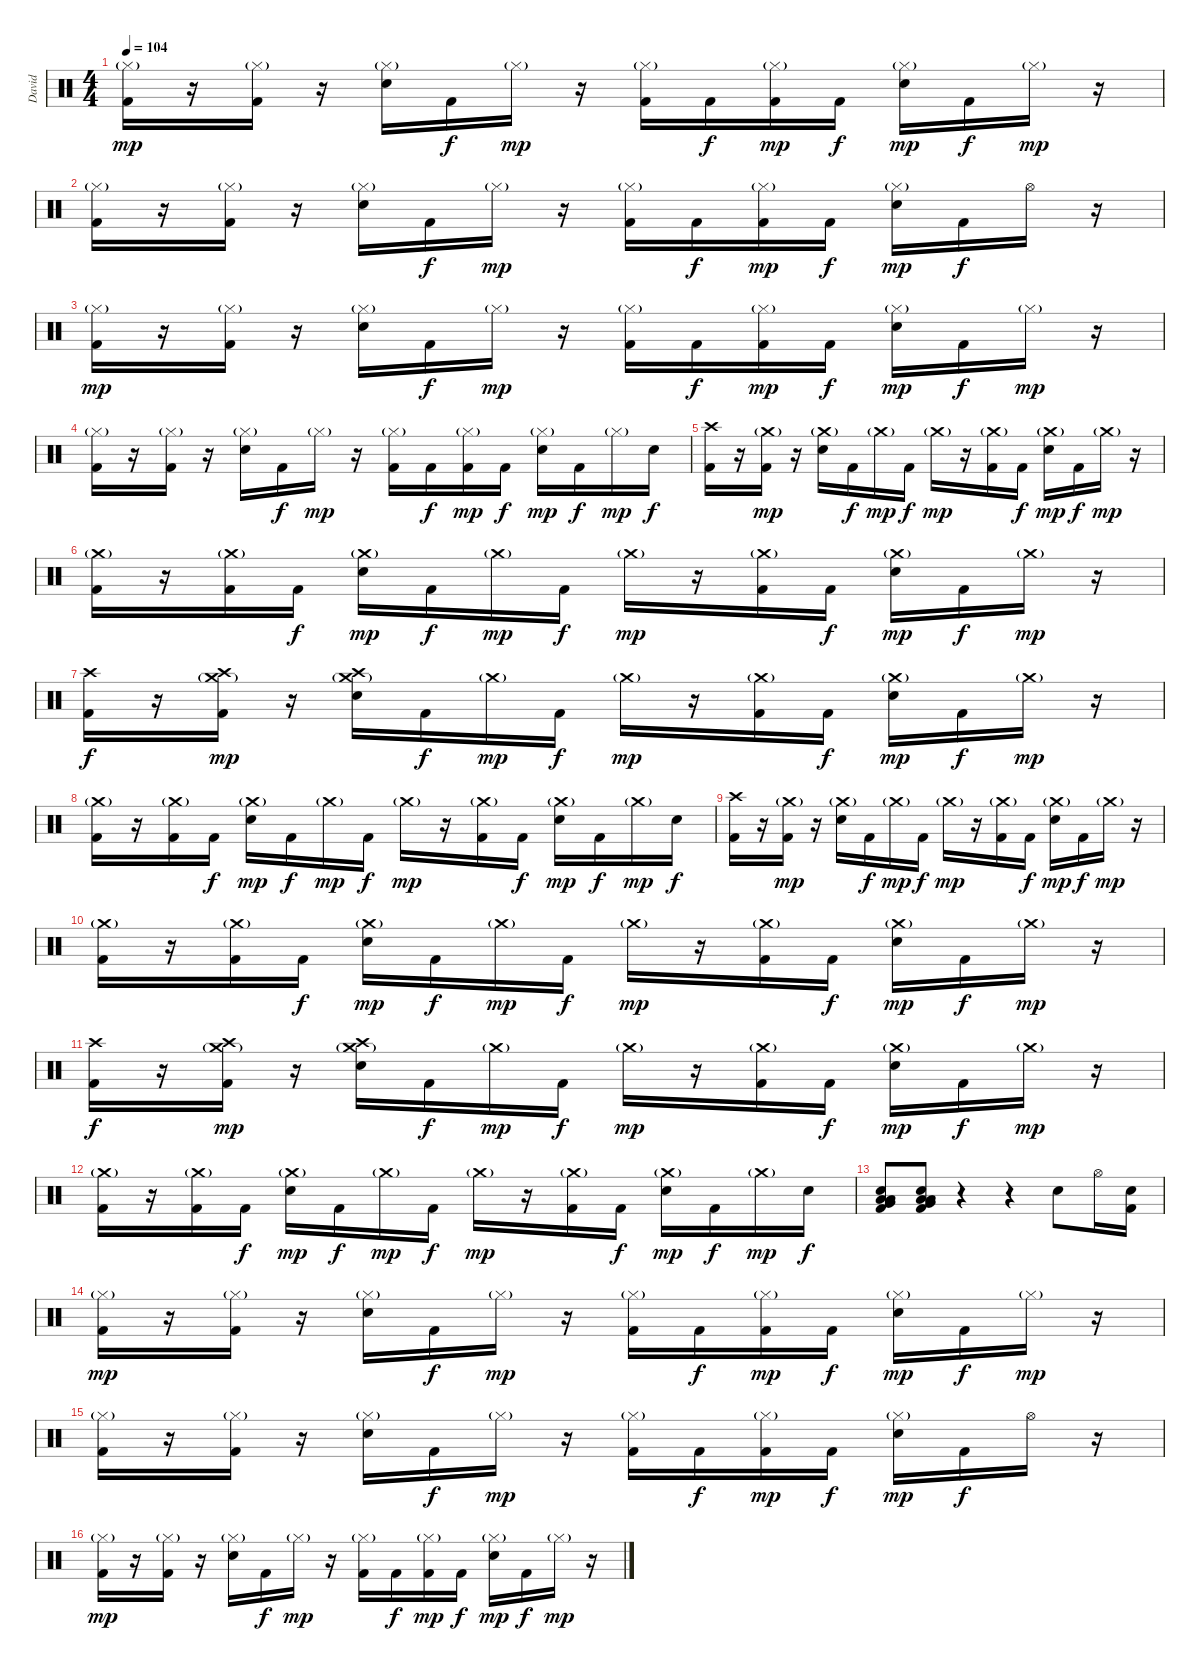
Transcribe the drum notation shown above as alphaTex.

\track ("David" "David") {instrument percussion}
\staff {score}
\articulation defaults
\ts (4 4)
\tempo 104
\clef neutral
\ks c
("Hi-Hat (closed)"{g} "Kick (hit) 2").16{dy mp} r.16 ("Hi-Hat (closed)"{g} "Kick (hit) 2").16 r.16 ("Hi-Hat (closed)"{g} "Electric Snare (hit)").16 "Kick (hit) 2".16{dy f} "Hi-Hat (closed)"{g}.16{dy mp} r.16 ("Hi-Hat (closed)"{g} "Kick (hit) 2").16 "Kick (hit) 2".16{dy f} ("Hi-Hat (closed)"{g} "Kick (hit) 2").16{dy mp} "Kick (hit) 2".16{dy f} ("Hi-Hat (closed)"{g} "Electric Snare (hit)").16{dy mp} "Kick (hit) 2".16{dy f} "Hi-Hat (closed)"{g}.16{dy mp} r.16 |
("Hi-Hat (closed)"{g} "Kick (hit) 2").16 r.16 ("Hi-Hat (closed)"{g} "Kick (hit) 2").16 r.16 ("Hi-Hat (closed)"{g} "Electric Snare (hit)").16 "Kick (hit) 2".16{dy f} "Hi-Hat (closed)"{g}.16{dy mp} r.16 ("Hi-Hat (closed)"{g} "Kick (hit) 2").16 "Kick (hit) 2".16{dy f} ("Hi-Hat (closed)"{g} "Kick (hit) 2").16{dy mp} "Kick (hit) 2".16{dy f} ("Hi-Hat (closed)"{g} "Electric Snare (hit)").16{dy mp} "Kick (hit) 2".16{dy f} "Hi-Hat (open)".16 r.16 |
("Hi-Hat (closed)"{g} "Kick (hit) 2").16{dy mp} r.16 ("Hi-Hat (closed)"{g} "Kick (hit) 2").16 r.16 ("Hi-Hat (closed)"{g} "Electric Snare (hit)").16 "Kick (hit) 2".16{dy f} "Hi-Hat (closed)"{g}.16{dy mp} r.16 ("Hi-Hat (closed)"{g} "Kick (hit) 2").16 "Kick (hit) 2".16{dy f} ("Hi-Hat (closed)"{g} "Kick (hit) 2").16{dy mp} "Kick (hit) 2".16{dy f} ("Hi-Hat (closed)"{g} "Electric Snare (hit)").16{dy mp} "Kick (hit) 2".16{dy f} "Hi-Hat (closed)"{g}.16{dy mp} r.16 |
("Hi-Hat (closed)"{g} "Kick (hit) 2").16 r.16 ("Hi-Hat (closed)"{g} "Kick (hit) 2").16 r.16 ("Hi-Hat (closed)"{g} "Electric Snare (hit)").16 "Kick (hit) 2".16{dy f} "Hi-Hat (closed)"{g}.16{dy mp} r.16 ("Hi-Hat (closed)"{g} "Kick (hit) 2").16 "Kick (hit) 2".16{dy f} ("Hi-Hat (closed)"{g} "Kick (hit) 2").16{dy mp} "Kick (hit) 2".16{dy f} ("Hi-Hat (closed)"{g} "Electric Snare (hit)").16{dy mp} "Kick (hit) 2".16{dy f} "Hi-Hat (closed)"{g}.16{dy mp} "Electric Snare (hit)".16{dy f} |
("Crash high (hit)" "Kick (hit) 2").16 r.16 ("Crash medium (hit)"{g} "Kick (hit) 2").16{dy mp} r.16 ("Crash medium (hit)"{g} "Electric Snare (hit)").16 "Kick (hit) 2".16{dy f} "Crash medium (hit)"{g}.16{dy mp} "Kick (hit) 2".16{dy f} "Crash medium (hit)"{g}.16{dy mp} r.16 ("Crash medium (hit)"{g} "Kick (hit) 2").16 "Kick (hit) 2".16{dy f} ("Crash medium (hit)"{g} "Electric Snare (hit)").16{dy mp} "Kick (hit) 2".16{dy f} "Crash medium (hit)"{g}.16{dy mp} r.16 |
("Crash medium (hit)"{g} "Kick (hit) 2").16 r.16 ("Crash medium (hit)"{g} "Kick (hit) 2").16 "Kick (hit) 2".16{dy f} ("Crash medium (hit)"{g} "Electric Snare (hit)").16{dy mp} "Kick (hit) 2".16{dy f} "Crash medium (hit)"{g}.16{dy mp} "Kick (hit) 2".16{dy f} "Crash medium (hit)"{g}.16{dy mp} r.16 ("Crash medium (hit)"{g} "Kick (hit) 2").16 "Kick (hit) 2".16{dy f} ("Crash medium (hit)"{g} "Electric Snare (hit)").16{dy mp} "Kick (hit) 2".16{dy f} "Crash medium (hit)"{g}.16{dy mp} r.16 |
("Crash high (hit)" "Kick (hit) 2").16{dy f} r.16 ("Crash high (hit)" "Crash medium (hit)"{g} "Kick (hit) 2").16{dy mp} r.16 ("Crash high (hit)" "Crash medium (hit)"{g} "Electric Snare (hit)").16 "Kick (hit) 2".16{dy f} "Crash medium (hit)"{g}.16{dy mp} "Kick (hit) 2".16{dy f} "Crash medium (hit)"{g}.16{dy mp} r.16 ("Crash medium (hit)"{g} "Kick (hit) 2").16 "Kick (hit) 2".16{dy f} ("Crash medium (hit)"{g} "Electric Snare (hit)").16{dy mp} "Kick (hit) 2".16{dy f} "Crash medium (hit)"{g}.16{dy mp} r.16 |
("Crash medium (hit)"{g} "Kick (hit) 2").16 r.16 ("Crash medium (hit)"{g} "Kick (hit) 2").16 "Kick (hit) 2".16{dy f} ("Crash medium (hit)"{g} "Electric Snare (hit)").16{dy mp} "Kick (hit) 2".16{dy f} "Crash medium (hit)"{g}.16{dy mp} "Kick (hit) 2".16{dy f} "Crash medium (hit)"{g}.16{dy mp} r.16 ("Crash medium (hit)"{g} "Kick (hit) 2").16 "Kick (hit) 2".16{dy f} ("Crash medium (hit)"{g} "Electric Snare (hit)").16{dy mp} "Kick (hit) 2".16{dy f} "Crash medium (hit)"{g}.16{dy mp} "Electric Snare (hit)".16{dy f} |
("Crash high (hit)" "Kick (hit) 2").16 r.16 ("Crash medium (hit)"{g} "Kick (hit) 2").16{dy mp} r.16 ("Crash medium (hit)"{g} "Electric Snare (hit)").16 "Kick (hit) 2".16{dy f} "Crash medium (hit)"{g}.16{dy mp} "Kick (hit) 2".16{dy f} "Crash medium (hit)"{g}.16{dy mp} r.16 ("Crash medium (hit)"{g} "Kick (hit) 2").16 "Kick (hit) 2".16{dy f} ("Crash medium (hit)"{g} "Electric Snare (hit)").16{dy mp} "Kick (hit) 2".16{dy f} "Crash medium (hit)"{g}.16{dy mp} r.16 |
("Crash medium (hit)"{g} "Kick (hit) 2").16 r.16 ("Crash medium (hit)"{g} "Kick (hit) 2").16 "Kick (hit) 2".16{dy f} ("Crash medium (hit)"{g} "Electric Snare (hit)").16{dy mp} "Kick (hit) 2".16{dy f} "Crash medium (hit)"{g}.16{dy mp} "Kick (hit) 2".16{dy f} "Crash medium (hit)"{g}.16{dy mp} r.16 ("Crash medium (hit)"{g} "Kick (hit) 2").16 "Kick (hit) 2".16{dy f} ("Crash medium (hit)"{g} "Electric Snare (hit)").16{dy mp} "Kick (hit) 2".16{dy f} "Crash medium (hit)"{g}.16{dy mp} r.16 |
("Crash high (hit)" "Kick (hit) 2").16{dy f} r.16 ("Crash high (hit)" "Crash medium (hit)"{g} "Kick (hit) 2").16{dy mp} r.16 ("Crash high (hit)" "Crash medium (hit)"{g} "Electric Snare (hit)").16 "Kick (hit) 2".16{dy f} "Crash medium (hit)"{g}.16{dy mp} "Kick (hit) 2".16{dy f} "Crash medium (hit)"{g}.16{dy mp} r.16 ("Crash medium (hit)"{g} "Kick (hit) 2").16 "Kick (hit) 2".16{dy f} ("Crash medium (hit)"{g} "Electric Snare (hit)").16{dy mp} "Kick (hit) 2".16{dy f} "Crash medium (hit)"{g}.16{dy mp} r.16 |
("Crash medium (hit)"{g} "Kick (hit) 2").16 r.16 ("Crash medium (hit)"{g} "Kick (hit) 2").16 "Kick (hit) 2".16{dy f} ("Crash medium (hit)"{g} "Electric Snare (hit)").16{dy mp} "Kick (hit) 2".16{dy f} "Crash medium (hit)"{g}.16{dy mp} "Kick (hit) 2".16{dy f} "Crash medium (hit)"{g}.16{dy mp} r.16 ("Crash medium (hit)"{g} "Kick (hit) 2").16 "Kick (hit) 2".16{dy f} ("Crash medium (hit)"{g} "Electric Snare (hit)").16{dy mp} "Kick (hit) 2".16{dy f} "Crash medium (hit)"{g}.16{dy mp} "Electric Snare (hit)".16{dy f} |
("Electric Snare (hit)" "Very Low Tom (hit)" "Low Floor Tom (hit)" "Low Floor Tom (hit)" "Kick (hit) 2").8 ("Electric Snare (hit)" "Very Low Tom (hit)" "Low Floor Tom (hit)" "Low Floor Tom (hit)" "Kick (hit) 2").8 r.4 r.4 "Electric Snare (hit)".8 "Hi-Hat (open)".16 ("Electric Snare (hit)" "Kick (hit) 2").16 |
("Hi-Hat (closed)"{g} "Kick (hit) 2").16{dy mp} r.16 ("Hi-Hat (closed)"{g} "Kick (hit) 2").16 r.16 ("Hi-Hat (closed)"{g} "Electric Snare (hit)").16 "Kick (hit) 2".16{dy f} "Hi-Hat (closed)"{g}.16{dy mp} r.16 ("Hi-Hat (closed)"{g} "Kick (hit) 2").16 "Kick (hit) 2".16{dy f} ("Hi-Hat (closed)"{g} "Kick (hit) 2").16{dy mp} "Kick (hit) 2".16{dy f} ("Hi-Hat (closed)"{g} "Electric Snare (hit)").16{dy mp} "Kick (hit) 2".16{dy f} "Hi-Hat (closed)"{g}.16{dy mp} r.16 |
("Hi-Hat (closed)"{g} "Kick (hit) 2").16 r.16 ("Hi-Hat (closed)"{g} "Kick (hit) 2").16 r.16 ("Hi-Hat (closed)"{g} "Electric Snare (hit)").16 "Kick (hit) 2".16{dy f} "Hi-Hat (closed)"{g}.16{dy mp} r.16 ("Hi-Hat (closed)"{g} "Kick (hit) 2").16 "Kick (hit) 2".16{dy f} ("Hi-Hat (closed)"{g} "Kick (hit) 2").16{dy mp} "Kick (hit) 2".16{dy f} ("Hi-Hat (closed)"{g} "Electric Snare (hit)").16{dy mp} "Kick (hit) 2".16{dy f} "Hi-Hat (open)".16 r.16 |
("Hi-Hat (closed)"{g} "Kick (hit) 2").16{dy mp} r.16 ("Hi-Hat (closed)"{g} "Kick (hit) 2").16 r.16 ("Hi-Hat (closed)"{g} "Electric Snare (hit)").16 "Kick (hit) 2".16{dy f} "Hi-Hat (closed)"{g}.16{dy mp} r.16 ("Hi-Hat (closed)"{g} "Kick (hit) 2").16 "Kick (hit) 2".16{dy f} ("Hi-Hat (closed)"{g} "Kick (hit) 2").16{dy mp} "Kick (hit) 2".16{dy f} ("Hi-Hat (closed)"{g} "Electric Snare (hit)").16{dy mp} "Kick (hit) 2".16{dy f} "Hi-Hat (closed)"{g}.16{dy mp} r.16
